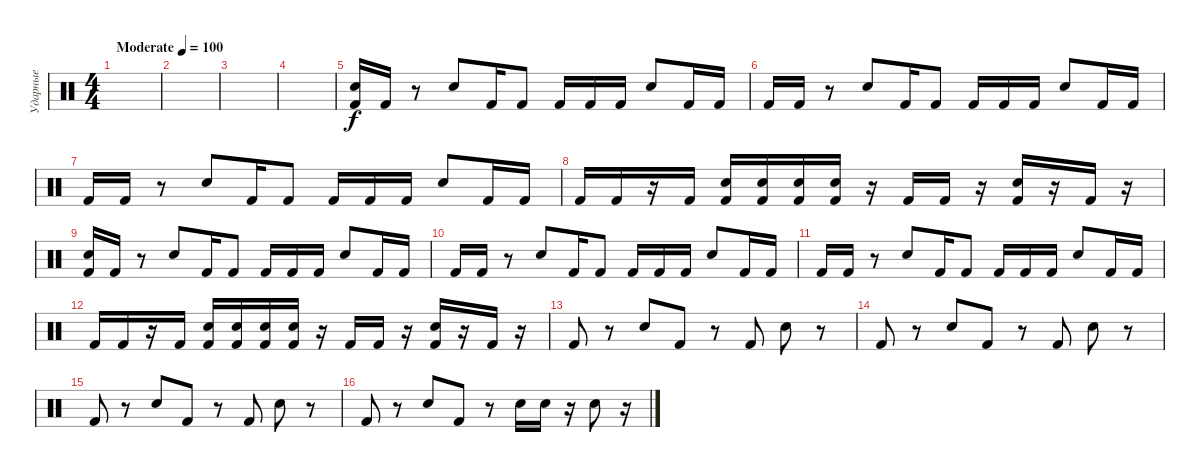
\track ("Ударные" "Ударные") {instrument percussion}
\staff {score}
\articulation defaults
\ts (4 4)
\tempo (100 "Moderate")
\clef neutral
\ks c
|
|
|
|
("Snare (hit) 2" "Kick (hit) 2").16 "Kick (hit) 2".16 r.8 "Snare (hit) 2".8 "Kick (hit) 2".16 "Kick (hit) 2".8 "Kick (hit) 2".16 "Kick (hit) 2".16 "Kick (hit) 2".16 "Snare (hit) 2".8 "Kick (hit) 2".16 "Kick (hit) 2".16 |
"Kick (hit) 2".16 "Kick (hit) 2".16 r.8 "Snare (hit) 2".8 "Kick (hit) 2".16 "Kick (hit) 2".8 "Kick (hit) 2".16 "Kick (hit) 2".16 "Kick (hit) 2".16 "Snare (hit) 2".8 "Kick (hit) 2".16 "Kick (hit) 2".16 |
"Kick (hit) 2".16 "Kick (hit) 2".16 r.8 "Snare (hit) 2".8 "Kick (hit) 2".16 "Kick (hit) 2".8 "Kick (hit) 2".16 "Kick (hit) 2".16 "Kick (hit) 2".16 "Snare (hit) 2".8 "Kick (hit) 2".16 "Kick (hit) 2".16 |
"Kick (hit) 2".16 "Kick (hit) 2".16 r.16 "Kick (hit) 2".16 ("Snare (hit) 2" "Kick (hit) 2").16 ("Snare (hit) 2" "Kick (hit) 2").16 ("Snare (hit) 2" "Kick (hit) 2").16 ("Snare (hit) 2" "Kick (hit) 2").16 r.16 "Kick (hit) 2".16 "Kick (hit) 2".16 r.16 ("Snare (hit) 2" "Kick (hit) 2").16 r.16 "Kick (hit) 2".16 r.16 |
("Snare (hit) 2" "Kick (hit) 2").16 "Kick (hit) 2".16 r.8 "Snare (hit) 2".8 "Kick (hit) 2".16 "Kick (hit) 2".8 "Kick (hit) 2".16 "Kick (hit) 2".16 "Kick (hit) 2".16 "Snare (hit) 2".8 "Kick (hit) 2".16 "Kick (hit) 2".16 |
"Kick (hit) 2".16 "Kick (hit) 2".16 r.8 "Snare (hit) 2".8 "Kick (hit) 2".16 "Kick (hit) 2".8 "Kick (hit) 2".16 "Kick (hit) 2".16 "Kick (hit) 2".16 "Snare (hit) 2".8 "Kick (hit) 2".16 "Kick (hit) 2".16 |
"Kick (hit) 2".16 "Kick (hit) 2".16 r.8 "Snare (hit) 2".8 "Kick (hit) 2".16 "Kick (hit) 2".8 "Kick (hit) 2".16 "Kick (hit) 2".16 "Kick (hit) 2".16 "Snare (hit) 2".8 "Kick (hit) 2".16 "Kick (hit) 2".16 |
"Kick (hit) 2".16 "Kick (hit) 2".16 r.16 "Kick (hit) 2".16 ("Snare (hit) 2" "Kick (hit) 2").16 ("Snare (hit) 2" "Kick (hit) 2").16 ("Snare (hit) 2" "Kick (hit) 2").16 ("Snare (hit) 2" "Kick (hit) 2").16 r.16 "Kick (hit) 2".16 "Kick (hit) 2".16 r.16 ("Snare (hit) 2" "Kick (hit) 2").16 r.16 "Kick (hit) 2".16 r.16 |
"Kick (hit) 2".8 r.8 "Snare (hit) 2".8 "Kick (hit) 2".8 r.8 "Kick (hit) 2".8 "Snare (hit) 2".8 r.8 |
"Kick (hit) 2".8 r.8 "Snare (hit) 2".8 "Kick (hit) 2".8 r.8 "Kick (hit) 2".8 "Snare (hit) 2".8 r.8 |
"Kick (hit) 2".8 r.8 "Snare (hit) 2".8 "Kick (hit) 2".8 r.8 "Kick (hit) 2".8 "Snare (hit) 2".8 r.8 |
"Kick (hit) 2".8 r.8 "Snare (hit) 2".8 "Kick (hit) 2".8 r.8 "Snare (hit) 2".16 "Snare (hit) 2".16 r.16 "Snare (hit) 2".8 r.16
